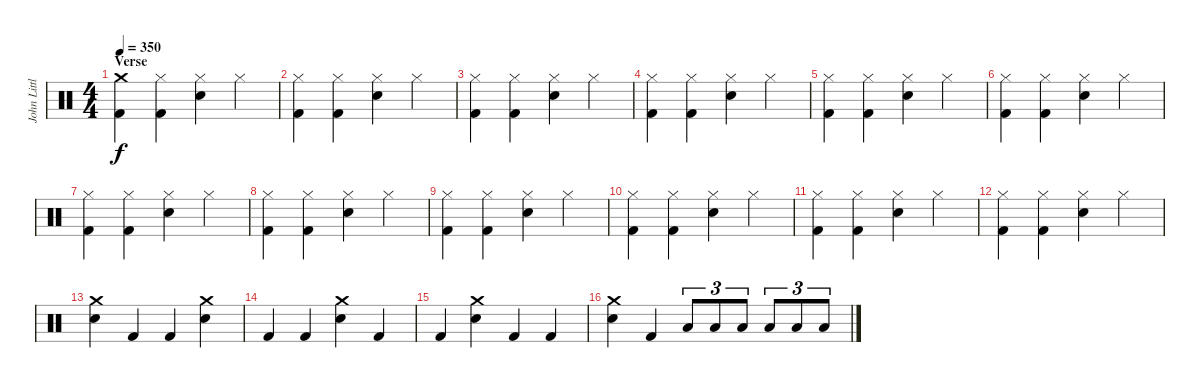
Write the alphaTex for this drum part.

\track ("John Littler - Drums" "John Littl") {instrument percussion}
\staff {score}
\articulation defaults
\ts (4 4)
\section ("" "Verse")
\tempo 350
\clef neutral
\ks c
("Crash medium (hit)" "Kick (hit) 2").4{dy f} ("Hi-Hat (closed)" "Kick (hit) 2").4 ("Hi-Hat (closed)" "Snare (hit) 2").4 "Hi-Hat (closed)".4 |
("Hi-Hat (closed)" "Kick (hit) 2").4 ("Hi-Hat (closed)" "Kick (hit) 2").4 ("Hi-Hat (closed)" "Snare (hit) 2").4 "Hi-Hat (closed)".4 |
("Hi-Hat (closed)" "Kick (hit) 2").4 ("Hi-Hat (closed)" "Kick (hit) 2").4 ("Hi-Hat (closed)" "Snare (hit) 2").4 "Hi-Hat (closed)".4 |
("Hi-Hat (closed)" "Kick (hit) 2").4 ("Hi-Hat (closed)" "Kick (hit) 2").4 ("Hi-Hat (closed)" "Snare (hit) 2").4 "Hi-Hat (closed)".4 |
("Hi-Hat (closed)" "Kick (hit) 2").4 ("Hi-Hat (closed)" "Kick (hit) 2").4 ("Hi-Hat (closed)" "Snare (hit) 2").4 "Hi-Hat (closed)".4 |
("Hi-Hat (closed)" "Kick (hit) 2").4 ("Hi-Hat (closed)" "Kick (hit) 2").4 ("Hi-Hat (closed)" "Snare (hit) 2").4 "Hi-Hat (closed)".4 |
("Hi-Hat (closed)" "Kick (hit) 2").4 ("Hi-Hat (closed)" "Kick (hit) 2").4 ("Hi-Hat (closed)" "Snare (hit) 2").4 "Hi-Hat (closed)".4 |
("Hi-Hat (closed)" "Kick (hit) 2").4 ("Hi-Hat (closed)" "Kick (hit) 2").4 ("Hi-Hat (closed)" "Snare (hit) 2").4 "Hi-Hat (closed)".4 |
("Hi-Hat (closed)" "Kick (hit) 2").4 ("Hi-Hat (closed)" "Kick (hit) 2").4 ("Hi-Hat (closed)" "Snare (hit) 2").4 "Hi-Hat (closed)".4 |
("Hi-Hat (closed)" "Kick (hit) 2").4 ("Hi-Hat (closed)" "Kick (hit) 2").4 ("Hi-Hat (closed)" "Snare (hit) 2").4 "Hi-Hat (closed)".4 |
("Hi-Hat (closed)" "Kick (hit) 2").4 ("Hi-Hat (closed)" "Kick (hit) 2").4 ("Hi-Hat (closed)" "Snare (hit) 2").4 "Hi-Hat (closed)".4 |
("Hi-Hat (closed)" "Kick (hit) 2").4 ("Hi-Hat (closed)" "Kick (hit) 2").4 ("Hi-Hat (closed)" "Snare (hit) 2").4 "Hi-Hat (closed)".4 |
("Crash medium (hit)" "Snare (hit) 2").4 "Kick (hit) 2".4 "Kick (hit) 2".4 ("Crash medium (hit)" "Snare (hit) 2").4 |
"Kick (hit) 2".4 "Kick (hit) 2".4 ("Crash medium (hit)" "Snare (hit) 2").4 "Kick (hit) 2".4 |
"Kick (hit) 2".4 ("Crash medium (hit)" "Snare (hit) 2").4 "Kick (hit) 2".4 "Kick (hit) 2".4 |
("Crash medium (hit)" "Snare (hit) 2").4 "Kick (hit) 2".4 "Low Tom (hit)".8{tu (3 2)} "Low Tom (hit)".8{tu (3 2)} "Low Tom (hit)".8{tu (3 2)} "Low Floor Tom (hit)".8{tu (3 2)} "Low Floor Tom (hit)".8{tu (3 2)} "Low Floor Tom (hit)".8{tu (3 2)}
